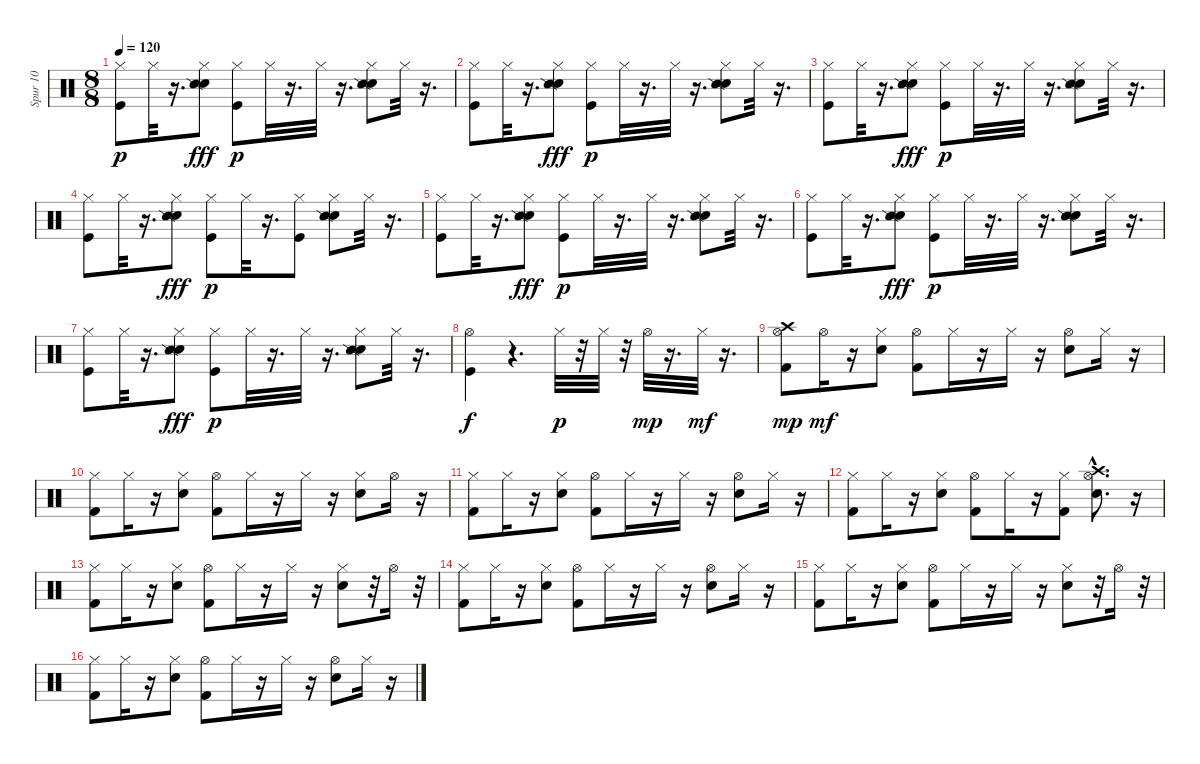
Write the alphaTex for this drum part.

\track ("Spur 10" "Spur 10") {instrument percussion}
\staff {score}
\articulation defaults
\ts (8 8)
\tempo 120
\clef neutral
\ks c
("Hi-Hat (closed)" "Kick (hit)").8{dy p} "Hi-Hat (closed)".32 r.16{d} ("Metronome (bell)" "Hi-Hat (closed)" "Snare (side stick) 2").8{dy fff} ("Kick (hit)" "Hi-Hat (closed)").8{dy p} "Hi-Hat (closed)".32 r.16{d} "Hi-Hat (closed)".32 r.16{d} ("Metronome (bell)" "Snare (side stick) 2" "Hi-Hat (closed)").8 "Hi-Hat (closed)".32 r.16{d} |
("Hi-Hat (closed)" "Kick (hit)").8 "Hi-Hat (closed)".32 r.16{d} ("Metronome (bell)" "Hi-Hat (closed)" "Snare (side stick) 2").8{dy fff} ("Kick (hit)" "Hi-Hat (closed)").8{dy p} "Hi-Hat (closed)".32 r.16{d} "Hi-Hat (closed)".32 r.16{d} ("Metronome (bell)" "Snare (side stick) 2" "Hi-Hat (closed)").8 "Hi-Hat (closed)".32 r.16{d} |
("Hi-Hat (closed)" "Kick (hit)").8 "Hi-Hat (closed)".32 r.16{d} ("Metronome (bell)" "Hi-Hat (closed)" "Snare (side stick) 2").8{dy fff} ("Kick (hit)" "Hi-Hat (closed)").8{dy p} "Hi-Hat (closed)".32 r.16{d} "Hi-Hat (closed)".32 r.16{d} ("Metronome (bell)" "Snare (side stick) 2" "Hi-Hat (closed)").8 "Hi-Hat (closed)".32 r.16{d} |
("Hi-Hat (closed)" "Kick (hit)").8 "Hi-Hat (closed)".32 r.16{d} ("Metronome (bell)" "Hi-Hat (closed)" "Snare (side stick) 2").8{dy fff} ("Kick (hit)" "Hi-Hat (closed)").8{dy p} "Hi-Hat (closed)".32 r.16{d} ("Kick (hit)" "Hi-Hat (closed)").8 ("Metronome (bell)" "Snare (side stick) 2" "Hi-Hat (closed)").8 "Hi-Hat (closed)".32 r.16{d} |
("Hi-Hat (closed)" "Kick (hit)").8 "Hi-Hat (closed)".32 r.16{d} ("Metronome (bell)" "Hi-Hat (closed)" "Snare (side stick) 2").8{dy fff} ("Kick (hit)" "Hi-Hat (closed)").8{dy p} "Hi-Hat (closed)".32 r.16{d} "Hi-Hat (closed)".32 r.16{d} ("Metronome (bell)" "Snare (side stick) 2" "Hi-Hat (closed)").8 "Hi-Hat (closed)".32 r.16{d} |
("Hi-Hat (closed)" "Kick (hit)").8 "Hi-Hat (closed)".32 r.16{d} ("Metronome (bell)" "Hi-Hat (closed)" "Snare (side stick) 2").8{dy fff} ("Kick (hit)" "Hi-Hat (closed)").8{dy p} "Hi-Hat (closed)".32 r.16{d} "Hi-Hat (closed)".32 r.16{d} ("Metronome (bell)" "Snare (side stick) 2" "Hi-Hat (closed)").8 "Hi-Hat (closed)".32 r.16{d} |
("Hi-Hat (closed)" "Kick (hit)").8 "Hi-Hat (closed)".32 r.16{d} ("Metronome (bell)" "Hi-Hat (closed)" "Snare (side stick) 2").8{dy fff} ("Kick (hit)" "Hi-Hat (closed)").8{dy p} "Hi-Hat (closed)".32 r.16{d} "Hi-Hat (closed)".32 r.16{d} ("Metronome (bell)" "Snare (side stick) 2" "Hi-Hat (closed)").8 "Hi-Hat (closed)".32 r.16{d} |
("Hi-Hat (open)" "Kick (hit)").4{dy f} r.4{d} "Hi-Hat (closed)".32{dy p} r.32 "Hi-Hat (closed)".32 r.32 "Hi-Hat (open)".32{dy mp} r.16{d} "Hi-Hat (closed)".32{dy mf} r.16{d} |
("Hi-Hat (open)" "Kick (hit) 2" "Crash high (hit)").8{dy mp} "Hi-Hat (open)".16{dy mf} r.16 ("Hi-Hat (closed)" "Metronome (bell)").8 ("Kick (hit) 2" "Hi-Hat (open)").8 "Hi-Hat (closed)".16 r.16 "Hi-Hat (closed)".16 r.16 ("Hi-Hat (open)" "Metronome (bell)").8 "Hi-Hat (closed)".16 r.16 |
("Hi-Hat (closed)" "Kick (hit) 2").8 "Hi-Hat (closed)".16 r.16 ("Hi-Hat (closed)" "Metronome (bell)").8 ("Kick (hit) 2" "Hi-Hat (open)").8 "Hi-Hat (closed)".16 r.16 "Hi-Hat (closed)".16 r.16 ("Hi-Hat (closed)" "Metronome (bell)").8 "Hi-Hat (open)".16 r.16 |
("Hi-Hat (closed)" "Kick (hit) 2").8 "Hi-Hat (closed)".16 r.16 ("Hi-Hat (closed)" "Metronome (bell)").8 ("Kick (hit) 2" "Hi-Hat (open)").8 "Hi-Hat (closed)".16 r.16 "Hi-Hat (closed)".16 r.16 ("Hi-Hat (open)" "Metronome (bell)").8 "Hi-Hat (closed)".16 r.16 |
("Hi-Hat (closed)" "Kick (hit) 2").8 "Hi-Hat (closed)".16 r.16 ("Hi-Hat (closed)" "Metronome (bell)").8 ("Kick (hit) 2" "Hi-Hat (open)").8 "Hi-Hat (closed)".16 r.16 ("Hi-Hat (closed)" "Kick (hit) 2").8 ("Crash high (hit)"{hac} "Hi-Hat (open)" "Metronome (bell)").8{d} r.16 |
("Hi-Hat (closed)" "Kick (hit) 2").8 "Hi-Hat (closed)".16 r.16 ("Hi-Hat (closed)" "Metronome (bell)").8 ("Kick (hit) 2" "Hi-Hat (open)").8 "Hi-Hat (closed)".16 r.16 "Hi-Hat (closed)".16 r.16 ("Hi-Hat (closed)" "Metronome (bell)").8 r.32 "Hi-Hat (open)".16 r.32 |
("Hi-Hat (closed)" "Kick (hit) 2").8 "Hi-Hat (closed)".16 r.16 ("Hi-Hat (closed)" "Metronome (bell)").8 ("Kick (hit) 2" "Hi-Hat (open)").8 "Hi-Hat (closed)".16 r.16 "Hi-Hat (closed)".16 r.16 ("Hi-Hat (open)" "Metronome (bell)").8 "Hi-Hat (closed)".16 r.16 |
("Hi-Hat (closed)" "Kick (hit) 2").8 "Hi-Hat (closed)".16 r.16 ("Hi-Hat (closed)" "Metronome (bell)").8 ("Kick (hit) 2" "Hi-Hat (open)").8 "Hi-Hat (closed)".16 r.16 "Hi-Hat (closed)".16 r.16 ("Hi-Hat (closed)" "Metronome (bell)").8 r.32 "Hi-Hat (open)".16 r.32 |
("Hi-Hat (closed)" "Kick (hit) 2").8 "Hi-Hat (closed)".16 r.16 ("Hi-Hat (closed)" "Metronome (bell)").8 ("Kick (hit) 2" "Hi-Hat (open)").8 "Hi-Hat (closed)".16 r.16 "Hi-Hat (closed)".16 r.16 ("Hi-Hat (open)" "Metronome (bell)").8 "Hi-Hat (closed)".16 r.16
